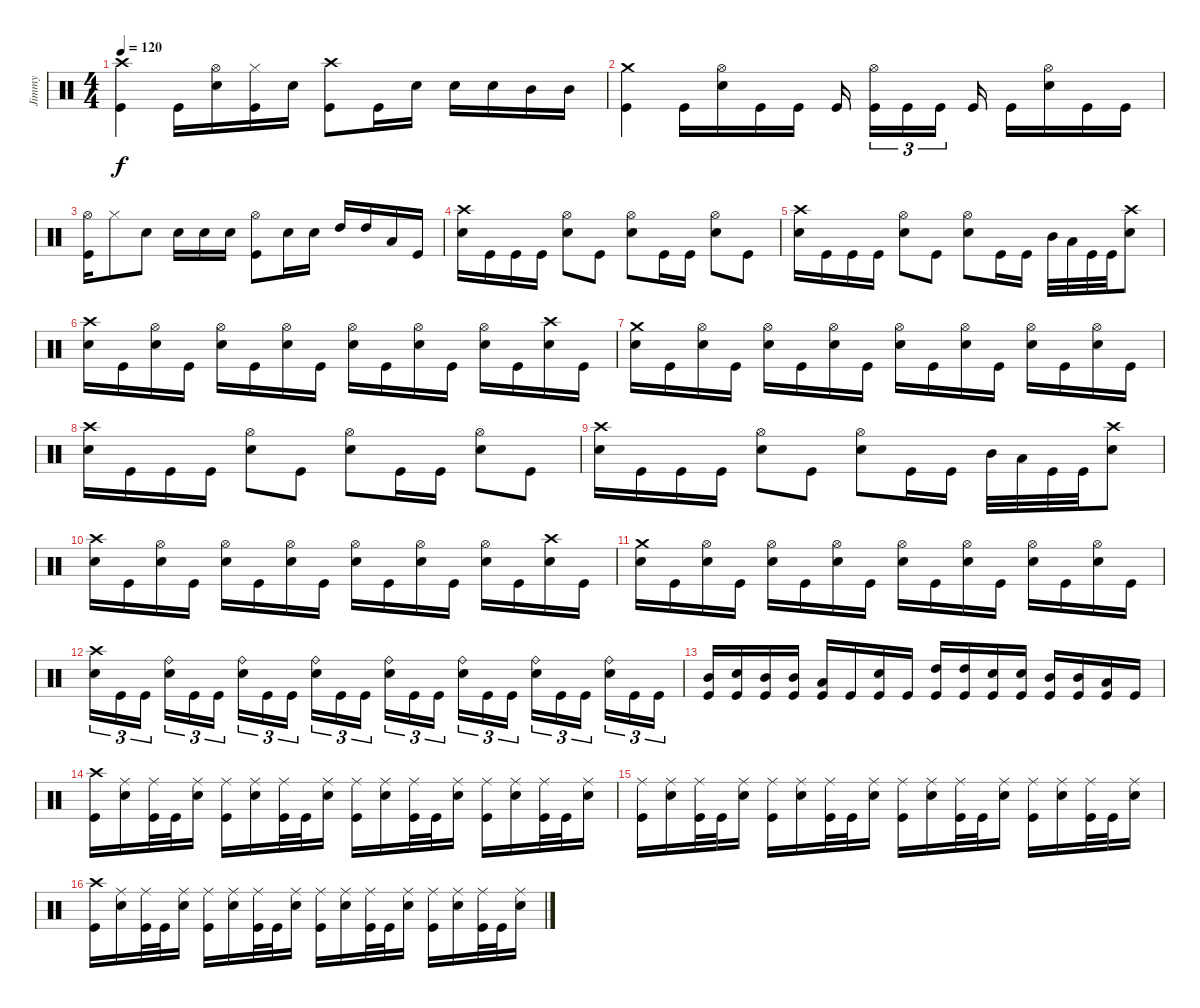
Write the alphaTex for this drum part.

\track ("Jimmy" "Jimmy") {instrument percussion}
\staff {score}
\articulation defaults
\ts (4 4)
\tempo 120
\clef neutral
\ks c
("Kick (hit)" "Crash high (hit)").4{dy f} "Kick (hit)".16 ("Snare (hit) 2" "Hi-Hat (open)").16 ("Kick (hit)" "Hi-Hat (closed)").16 "Snare (hit) 2".16 ("Kick (hit)" "Crash high (hit)").8 "Kick (hit)".16 "Snare (hit) 2".16 "Snare (hit) 2".16 "Snare (hit) 2".16 "Mid Tom (hit)".16 "Mid Tom (hit)".16 |
("Kick (hit)" "Crash medium (hit)").4 "Kick (hit)".16 ("Snare (hit) 2" "Hi-Hat (open)").16 "Kick (hit)".16 "Kick (hit)".16 "Kick (hit)".16{beam splitsecondary} ("Kick (hit)" "Hi-Hat (open)").16{tu (3 2)} "Kick (hit)".16{tu (3 2)} "Kick (hit)".16{tu (3 2) beam splitsecondary} "Kick (hit)".16 "Kick (hit)".16 ("Snare (hit) 2" "Hi-Hat (open)").16 "Kick (hit)".16 "Kick (hit)".16 |
("Hi-Hat (open)" "Kick (hit)").16 "Hi-Hat (closed)".8 "Snare (hit) 2".8 "Snare (hit) 2".16 "Snare (hit) 2".16 "Snare (hit) 2".16 ("Hi-Hat (open)" "Kick (hit)").8 "Snare (hit) 2".16 "Snare (hit) 2".16 "High Tom (hit)".16 "High Tom (hit)".16 "Low Tom (hit)".16 "Kick (hit)".16 |
("Snare (hit) 2" "Crash high (hit)").16 "Kick (hit)".16 "Kick (hit)".16 "Kick (hit)".16 ("Snare (hit) 2" "Hi-Hat (open)").8 "Kick (hit)".8 ("Snare (hit) 2" "Hi-Hat (open)").8 "Kick (hit)".16 "Kick (hit)".16 ("Snare (hit) 2" "Hi-Hat (open)").8 "Kick (hit)".8 |
("Snare (hit) 2" "Crash high (hit)").16 "Kick (hit)".16 "Kick (hit)".16 "Kick (hit)".16 ("Snare (hit) 2" "Hi-Hat (open)").8 "Kick (hit)".8 ("Snare (hit) 2" "Hi-Hat (open)").8 "Kick (hit)".16 "Kick (hit)".16 "Mid Tom (hit)".32 "Low Tom (hit)".32 "Kick (hit)".32 "Kick (hit)".32 ("Snare (hit) 2" "Crash high (hit)").8 |
("Snare (hit) 2" "Crash high (hit)").16 "Kick (hit)".16 ("Snare (hit) 2" "Hi-Hat (open)").16 "Kick (hit)".16 ("Snare (hit) 2" "Hi-Hat (open)").16 "Kick (hit)".16 ("Snare (hit) 2" "Hi-Hat (open)").16 "Kick (hit)".16 ("Snare (hit) 2" "Hi-Hat (open)").16 "Kick (hit)".16 ("Snare (hit) 2" "Hi-Hat (open)").16 "Kick (hit)".16 ("Snare (hit) 2" "Hi-Hat (open)").16 "Kick (hit)".16 ("Snare (hit) 2" "Crash high (hit)").16 "Kick (hit)".16 |
("Snare (hit) 2" "Crash medium (hit)").16 "Kick (hit)".16 ("Snare (hit) 2" "Hi-Hat (open)").16 "Kick (hit)".16 ("Snare (hit) 2" "Hi-Hat (open)").16 "Kick (hit)".16 ("Snare (hit) 2" "Hi-Hat (open)").16 "Kick (hit)".16 ("Snare (hit) 2" "Hi-Hat (open)").16 "Kick (hit)".16 ("Snare (hit) 2" "Hi-Hat (open)").16 "Kick (hit)".16 ("Snare (hit) 2" "Hi-Hat (open)").16 "Kick (hit)".16 ("Snare (hit) 2" "Hi-Hat (open)").16 "Kick (hit)".16 |
("Snare (hit) 2" "Crash high (hit)").16 "Kick (hit)".16 "Kick (hit)".16 "Kick (hit)".16 ("Snare (hit) 2" "Hi-Hat (open)").8 "Kick (hit)".8 ("Snare (hit) 2" "Hi-Hat (open)").8 "Kick (hit)".16 "Kick (hit)".16 ("Snare (hit) 2" "Hi-Hat (open)").8 "Kick (hit)".8 |
("Snare (hit) 2" "Crash high (hit)").16 "Kick (hit)".16 "Kick (hit)".16 "Kick (hit)".16 ("Snare (hit) 2" "Hi-Hat (open)").8 "Kick (hit)".8 ("Snare (hit) 2" "Hi-Hat (open)").8 "Kick (hit)".16 "Kick (hit)".16 "Mid Tom (hit)".32 "Low Tom (hit)".32 "Kick (hit)".32 "Kick (hit)".32 ("Snare (hit) 2" "Crash high (hit)").8 |
("Snare (hit) 2" "Crash high (hit)").16 "Kick (hit)".16 ("Snare (hit) 2" "Hi-Hat (open)").16 "Kick (hit)".16 ("Snare (hit) 2" "Hi-Hat (open)").16 "Kick (hit)".16 ("Snare (hit) 2" "Hi-Hat (open)").16 "Kick (hit)".16 ("Snare (hit) 2" "Hi-Hat (open)").16 "Kick (hit)".16 ("Snare (hit) 2" "Hi-Hat (open)").16 "Kick (hit)".16 ("Snare (hit) 2" "Hi-Hat (open)").16 "Kick (hit)".16 ("Snare (hit) 2" "Crash high (hit)").16 "Kick (hit)".16 |
("Snare (hit) 2" "Crash medium (hit)").16 "Kick (hit)".16 ("Snare (hit) 2" "Hi-Hat (open)").16 "Kick (hit)".16 ("Snare (hit) 2" "Hi-Hat (open)").16 "Kick (hit)".16 ("Snare (hit) 2" "Hi-Hat (open)").16 "Kick (hit)".16 ("Snare (hit) 2" "Hi-Hat (open)").16 "Kick (hit)".16 ("Snare (hit) 2" "Hi-Hat (open)").16 "Kick (hit)".16 ("Snare (hit) 2" "Hi-Hat (open)").16 "Kick (hit)".16 ("Snare (hit) 2" "Hi-Hat (open)").16 "Kick (hit)".16 |
("Snare (hit) 2" "Crash high (hit)").16{tu (3 2)} "Kick (hit)".16{tu (3 2)} "Kick (hit)".16{tu (3 2) beam splitsecondary} ("Snare (hit) 2" "Ride (bell)").16{tu (3 2)} "Kick (hit)".16{tu (3 2)} "Kick (hit)".16{tu (3 2)} ("Snare (hit) 2" "Ride (bell)").16{tu (3 2)} "Kick (hit)".16{tu (3 2)} "Kick (hit)".16{tu (3 2) beam splitsecondary} ("Snare (hit) 2" "Ride (bell)").16{tu (3 2)} "Kick (hit)".16{tu (3 2)} "Kick (hit)".16{tu (3 2)} ("Snare (hit) 2" "Ride (bell)").16{tu (3 2)} "Kick (hit)".16{tu (3 2)} "Kick (hit)".16{tu (3 2) beam splitsecondary} ("Snare (hit) 2" "Ride (bell)").16{tu (3 2)} "Kick (hit)".16{tu (3 2)} "Kick (hit)".16{tu (3 2)} ("Snare (hit) 2" "Ride (bell)").16{tu (3 2)} "Kick (hit)".16{tu (3 2)} "Kick (hit)".16{tu (3 2) beam splitsecondary} ("Snare (hit) 2" "Ride (bell)").16{tu (3 2)} "Kick (hit)".16{tu (3 2)} "Kick (hit)".16{tu (3 2)} |
("Kick (hit)" "Mid Tom (hit)").16 ("Kick (hit)" "Snare (hit) 2").16 ("Kick (hit)" "Mid Tom (hit)").16 ("Kick (hit)" "Mid Tom (hit)").16 ("Low Tom (hit)" "Kick (hit)").16 "Kick (hit)".16 ("Kick (hit)" "Snare (hit) 2").16 "Kick (hit)".16 ("Kick (hit)" "High Tom (hit)").16 ("Kick (hit)" "High Tom (hit)").16 ("Kick (hit)" "Snare (hit) 2").16 ("Kick (hit)" "Snare (hit) 2").16 ("Kick (hit)" "Mid Tom (hit)").16 ("Kick (hit)" "Mid Tom (hit)").16 ("Kick (hit)" "Low Tom (hit)").16 "Kick (hit)".16 |
("Crash high (hit)" "Kick (hit)").16 ("Ride (middle)" "Snare (hit) 2").16 ("Ride (middle)" "Kick (hit)").32 "Kick (hit)".32 ("Ride (middle)" "Snare (hit) 2").16 ("Kick (hit)" "Ride (middle)").16 ("Snare (hit) 2" "Ride (middle)").16 ("Kick (hit)" "Ride (middle)").32 "Kick (hit)".32 ("Snare (hit) 2" "Ride (middle)").16 ("Kick (hit)" "Ride (middle)").16 ("Snare (hit) 2" "Ride (middle)").16 ("Kick (hit)" "Ride (middle)").32 "Kick (hit)".32 ("Snare (hit) 2" "Ride (middle)").16 ("Kick (hit)" "Ride (middle)").16 ("Snare (hit) 2" "Ride (middle)").16 ("Kick (hit)" "Ride (middle)").32 "Kick (hit)".32 ("Snare (hit) 2" "Ride (middle)").16 |
("Kick (hit)" "Ride (middle)").16 ("Snare (hit) 2" "Ride (middle)").16 ("Kick (hit)" "Ride (middle)").32 "Kick (hit)".32 ("Snare (hit) 2" "Ride (middle)").16 ("Kick (hit)" "Ride (middle)").16 ("Snare (hit) 2" "Ride (middle)").16 ("Kick (hit)" "Ride (middle)").32 "Kick (hit)".32 ("Snare (hit) 2" "Ride (middle)").16 ("Kick (hit)" "Ride (middle)").16 ("Snare (hit) 2" "Ride (middle)").16 ("Kick (hit)" "Ride (middle)").32 "Kick (hit)".32 ("Snare (hit) 2" "Ride (middle)").16 ("Kick (hit)" "Ride (middle)").16 ("Snare (hit) 2" "Ride (middle)").16 ("Kick (hit)" "Ride (middle)").32 "Kick (hit)".32 ("Snare (hit) 2" "Ride (middle)").16 |
("Crash high (hit)" "Kick (hit)").16 ("Ride (middle)" "Snare (hit) 2").16 ("Ride (middle)" "Kick (hit)").32 "Kick (hit)".32 ("Ride (middle)" "Snare (hit) 2").16 ("Kick (hit)" "Ride (middle)").16 ("Snare (hit) 2" "Ride (middle)").16 ("Kick (hit)" "Ride (middle)").32 "Kick (hit)".32 ("Snare (hit) 2" "Ride (middle)").16 ("Kick (hit)" "Ride (middle)").16 ("Snare (hit) 2" "Ride (middle)").16 ("Kick (hit)" "Ride (middle)").32 "Kick (hit)".32 ("Snare (hit) 2" "Ride (middle)").16 ("Kick (hit)" "Ride (middle)").16 ("Snare (hit) 2" "Ride (middle)").16 ("Kick (hit)" "Ride (middle)").32 "Kick (hit)".32 ("Snare (hit) 2" "Ride (middle)").16
